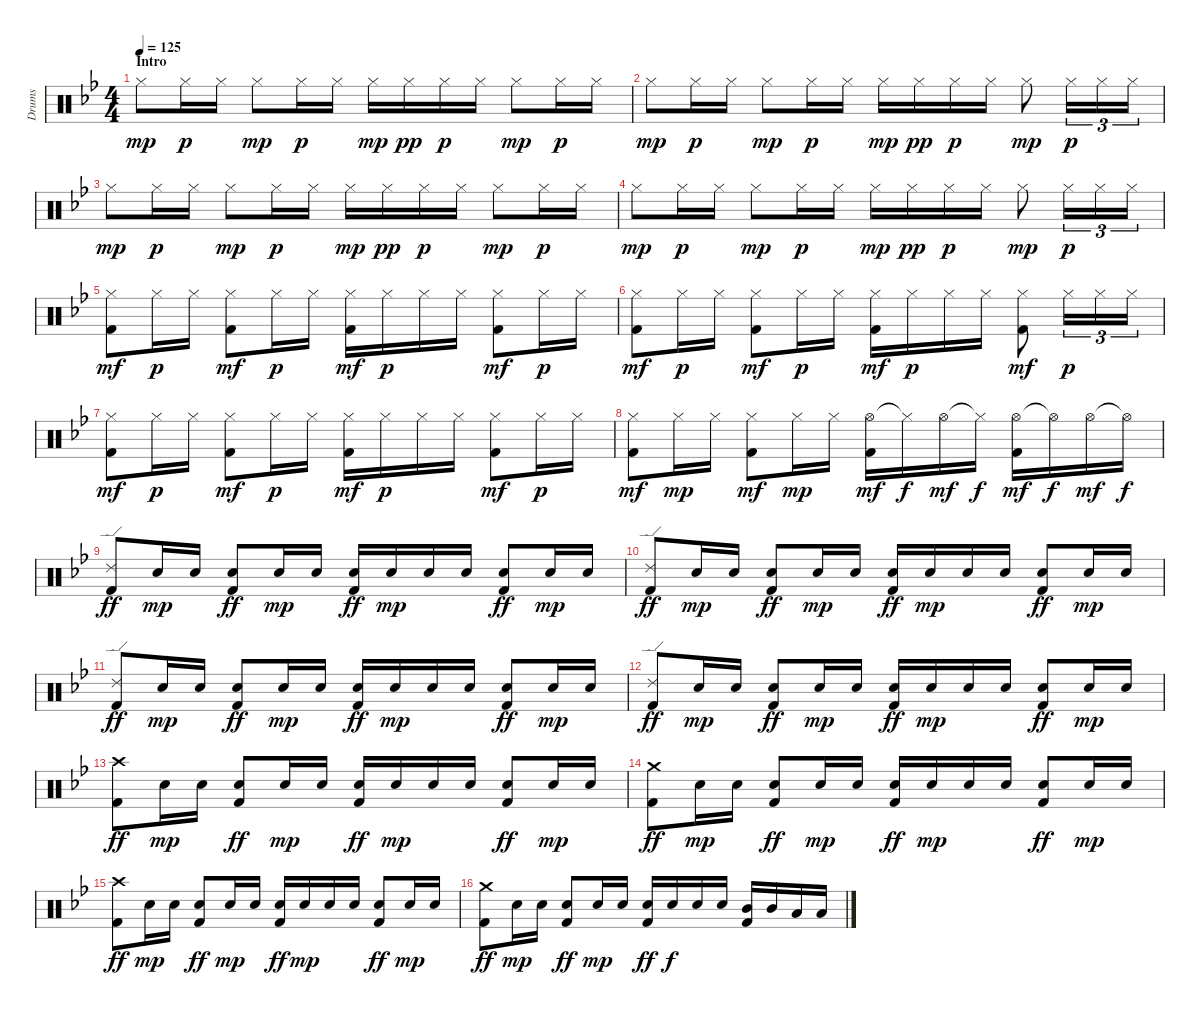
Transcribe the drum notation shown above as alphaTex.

\track ("Drums" "Drums") {instrument percussion}
\staff {score}
\articulation defaults
\ts (4 4)
\section ("" "Intro")
\tempo 125
\clef neutral
\ks gminor "Hi-Hat (closed)".8{dy mp} "Hi-Hat (closed)".16{dy p} "Hi-Hat (closed)".16 "Hi-Hat (closed)".8{dy mp} "Hi-Hat (closed)".16{dy p} "Hi-Hat (closed)".16 "Hi-Hat (closed)".16{dy mp} "Hi-Hat (closed)".16{dy pp} "Hi-Hat (closed)".16{dy p} "Hi-Hat (closed)".16 "Hi-Hat (closed)".8{dy mp} "Hi-Hat (closed)".16{dy p} "Hi-Hat (closed)".16
|
"Hi-Hat (closed)".8{dy mp} "Hi-Hat (closed)".16{dy p} "Hi-Hat (closed)".16 "Hi-Hat (closed)".8{dy mp} "Hi-Hat (closed)".16{dy p} "Hi-Hat (closed)".16 "Hi-Hat (closed)".16{dy mp} "Hi-Hat (closed)".16{dy pp} "Hi-Hat (closed)".16{dy p} "Hi-Hat (closed)".16 "Hi-Hat (closed)".8{dy mp} "Hi-Hat (closed)".16{tu (3 2) dy p} "Hi-Hat (closed)".16{tu (3 2)} "Hi-Hat (closed)".16{tu (3 2)} |
"Hi-Hat (closed)".8{dy mp} "Hi-Hat (closed)".16{dy p} "Hi-Hat (closed)".16 "Hi-Hat (closed)".8{dy mp} "Hi-Hat (closed)".16{dy p} "Hi-Hat (closed)".16 "Hi-Hat (closed)".16{dy mp} "Hi-Hat (closed)".16{dy pp} "Hi-Hat (closed)".16{dy p} "Hi-Hat (closed)".16 "Hi-Hat (closed)".8{dy mp} "Hi-Hat (closed)".16{dy p} "Hi-Hat (closed)".16 |
"Hi-Hat (closed)".8{dy mp} "Hi-Hat (closed)".16{dy p} "Hi-Hat (closed)".16 "Hi-Hat (closed)".8{dy mp} "Hi-Hat (closed)".16{dy p} "Hi-Hat (closed)".16 "Hi-Hat (closed)".16{dy mp} "Hi-Hat (closed)".16{dy pp} "Hi-Hat (closed)".16{dy p} "Hi-Hat (closed)".16 "Hi-Hat (closed)".8{dy mp} "Hi-Hat (closed)".16{tu (3 2) dy p} "Hi-Hat (closed)".16{tu (3 2)} "Hi-Hat (closed)".16{tu (3 2)} |
("Hi-Hat (closed)" "Kick (hit) 2").8{dy mf} "Hi-Hat (closed)".16{dy p} "Hi-Hat (closed)".16 ("Hi-Hat (closed)" "Kick (hit) 2").8{dy mf} "Hi-Hat (closed)".16{dy p} "Hi-Hat (closed)".16 ("Hi-Hat (closed)" "Kick (hit) 2").16{dy mf} "Hi-Hat (closed)".16{dy p} "Hi-Hat (closed)".16 "Hi-Hat (closed)".16 ("Hi-Hat (closed)" "Kick (hit) 2").8{dy mf} "Hi-Hat (closed)".16{dy p} "Hi-Hat (closed)".16 |
("Hi-Hat (closed)" "Kick (hit) 2").8{dy mf} "Hi-Hat (closed)".16{dy p} "Hi-Hat (closed)".16 ("Hi-Hat (closed)" "Kick (hit) 2").8{dy mf} "Hi-Hat (closed)".16{dy p} "Hi-Hat (closed)".16 ("Hi-Hat (closed)" "Kick (hit) 2").16{dy mf} "Hi-Hat (closed)".16{dy p} "Hi-Hat (closed)".16 "Hi-Hat (closed)".16 ("Hi-Hat (closed)" "Kick (hit) 2").8{dy mf} "Hi-Hat (closed)".16{tu (3 2) dy p} "Hi-Hat (closed)".16{tu (3 2)} "Hi-Hat (closed)".16{tu (3 2)} |
("Hi-Hat (closed)" "Kick (hit) 2").8{dy mf} "Hi-Hat (closed)".16{dy p} "Hi-Hat (closed)".16 ("Hi-Hat (closed)" "Kick (hit) 2").8{dy mf} "Hi-Hat (closed)".16{dy p} "Hi-Hat (closed)".16 ("Hi-Hat (closed)" "Kick (hit) 2").16{dy mf} "Hi-Hat (closed)".16{dy p} "Hi-Hat (closed)".16 "Hi-Hat (closed)".16 ("Hi-Hat (closed)" "Kick (hit) 2").8{dy mf} "Hi-Hat (closed)".16{dy p} "Hi-Hat (closed)".16 |
("Hi-Hat (closed)" "Kick (hit) 2").8{dy mf} "Hi-Hat (closed)".16{dy mp} "Hi-Hat (closed)".16 ("Hi-Hat (closed)" "Kick (hit) 2").8{dy mf} "Hi-Hat (closed)".16{dy mp} "Hi-Hat (closed)".16 ("Hi-Hat (open)" "Kick (hit) 2").16{dy mf} "Hi-Hat (closed)"{t}.16{dy f} "Hi-Hat (open)".16{dy mf} "Hi-Hat (closed)"{t}.16{dy f} ("Hi-Hat (open)" "Kick (hit) 2").16{dy mf} "Hi-Hat (open)"{t}.16{dy f} "Hi-Hat (open)".16{dy mf} "Hi-Hat (open)"{t}.16{dy f} |
("Ride (edge) 2" "Kick (hit) 2").8{dy ff} "Snare (hit) 2".16{dy mp} "Snare (hit) 2".16 ("Snare (hit) 2" "Kick (hit) 2").8{dy ff} "Snare (hit) 2".16{dy mp} "Snare (hit) 2".16 ("Snare (hit) 2" "Kick (hit) 2").16{dy ff} "Snare (hit) 2".16{dy mp} "Snare (hit) 2".16 "Snare (hit) 2".16 ("Snare (hit) 2" "Kick (hit) 2").8{dy ff} "Snare (hit) 2".16{dy mp} "Snare (hit) 2".16 |
("Ride (edge) 2" "Kick (hit) 2").8{dy ff} "Snare (hit) 2".16{dy mp} "Snare (hit) 2".16 ("Snare (hit) 2" "Kick (hit) 2").8{dy ff} "Snare (hit) 2".16{dy mp} "Snare (hit) 2".16 ("Snare (hit) 2" "Kick (hit) 2").16{dy ff} "Snare (hit) 2".16{dy mp} "Snare (hit) 2".16 "Snare (hit) 2".16 ("Snare (hit) 2" "Kick (hit) 2").8{dy ff} "Snare (hit) 2".16{dy mp} "Snare (hit) 2".16 |
("Ride (edge) 2" "Kick (hit) 2").8{dy ff} "Snare (hit) 2".16{dy mp} "Snare (hit) 2".16 ("Snare (hit) 2" "Kick (hit) 2").8{dy ff} "Snare (hit) 2".16{dy mp} "Snare (hit) 2".16 ("Snare (hit) 2" "Kick (hit) 2").16{dy ff} "Snare (hit) 2".16{dy mp} "Snare (hit) 2".16 "Snare (hit) 2".16 ("Snare (hit) 2" "Kick (hit) 2").8{dy ff} "Snare (hit) 2".16{dy mp} "Snare (hit) 2".16 |
("Ride (edge) 2" "Kick (hit) 2").8{dy ff} "Snare (hit) 2".16{dy mp} "Snare (hit) 2".16 ("Snare (hit) 2" "Kick (hit) 2").8{dy ff} "Snare (hit) 2".16{dy mp} "Snare (hit) 2".16 ("Snare (hit) 2" "Kick (hit) 2").16{dy ff} "Snare (hit) 2".16{dy mp} "Snare (hit) 2".16 "Snare (hit) 2".16 ("Snare (hit) 2" "Kick (hit) 2").8{dy ff} "Snare (hit) 2".16{dy mp} "Snare (hit) 2".16 |
("Crash high (hit)" "Kick (hit) 2").8{dy ff} "Snare (hit) 2".16{dy mp} "Snare (hit) 2".16 ("Snare (hit) 2" "Kick (hit) 2").8{dy ff} "Snare (hit) 2".16{dy mp} "Snare (hit) 2".16 ("Snare (hit) 2" "Kick (hit) 2").16{dy ff} "Snare (hit) 2".16{dy mp} "Snare (hit) 2".16 "Snare (hit) 2".16 ("Snare (hit) 2" "Kick (hit) 2").8{dy ff} "Snare (hit) 2".16{dy mp} "Snare (hit) 2".16 |
("Crash medium (hit)" "Kick (hit) 2").8{dy ff} "Snare (hit) 2".16{dy mp} "Snare (hit) 2".16 ("Snare (hit) 2" "Kick (hit) 2").8{dy ff} "Snare (hit) 2".16{dy mp} "Snare (hit) 2".16 ("Snare (hit) 2" "Kick (hit) 2").16{dy ff} "Snare (hit) 2".16{dy mp} "Snare (hit) 2".16 "Snare (hit) 2".16 ("Snare (hit) 2" "Kick (hit) 2").8{dy ff} "Snare (hit) 2".16{dy mp} "Snare (hit) 2".16 |
("Crash high (hit)" "Kick (hit) 2").8{dy ff} "Snare (hit) 2".16{dy mp} "Snare (hit) 2".16 ("Snare (hit) 2" "Kick (hit) 2").8{dy ff} "Snare (hit) 2".16{dy mp} "Snare (hit) 2".16 ("Snare (hit) 2" "Kick (hit) 2").16{dy ff} "Snare (hit) 2".16{dy mp} "Snare (hit) 2".16 "Snare (hit) 2".16 ("Snare (hit) 2" "Kick (hit) 2").8{dy ff} "Snare (hit) 2".16{dy mp} "Snare (hit) 2".16 |
("Crash medium (hit)" "Kick (hit) 2").8{dy ff} "Snare (hit) 2".16{dy mp} "Snare (hit) 2".16 ("Snare (hit) 2" "Kick (hit) 2").8{dy ff} "Snare (hit) 2".16{dy mp} "Snare (hit) 2".16 ("Snare (hit) 2" "Kick (hit) 2").16{dy ff} "Snare (hit) 2".16{dy f} "Snare (hit) 2".16 "Snare (hit) 2".16 ("Mid Tom (hit)" "Kick (hit) 2").16 "Mid Tom (hit)".16 "Low Tom (hit)".16 "Low Tom (hit)".16
